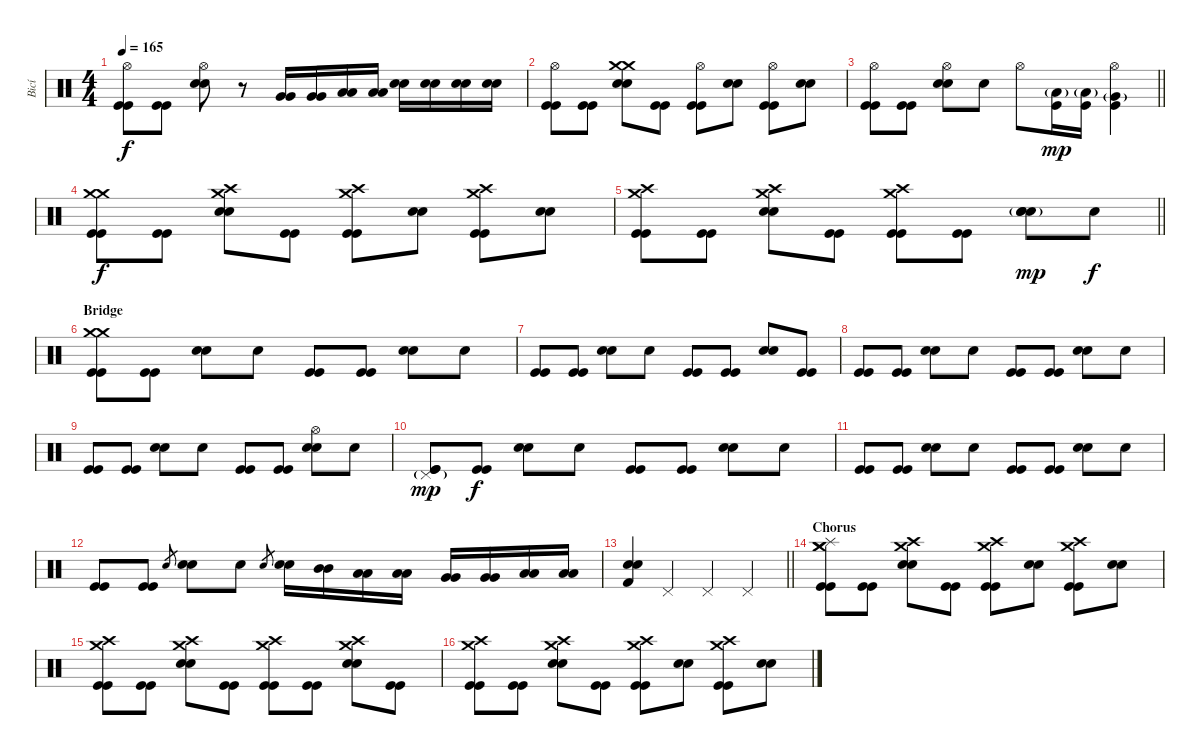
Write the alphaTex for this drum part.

\track ("Bicí" "Bicí") {instrument percussion}
\staff {score}
\articulation defaults
\ts (4 4)
\tempo 165
\clef neutral
\ks c
("Hi-Hat (open)" "Kick (hit)" "Kick (hit)").8{dy f} ("Kick (hit)" "Kick (hit)").8 ("Hi-Hat (open)" "Electric Snare (hit)" "Electric Snare (hit)").8 r.8 ("Very Low Tom (hit)" "Very Low Tom (hit)").16 ("Very Low Tom (hit)" "Very Low Tom (hit)").16 ("Low Floor Tom (hit)" "Low Floor Tom (hit)").16 ("Low Floor Tom (hit)" "Low Floor Tom (hit)").16 ("Electric Snare (hit)" "Electric Snare (hit)").16 ("Electric Snare (hit)" "Electric Snare (hit)").16 ("Electric Snare (hit)" "Electric Snare (hit)").16 ("Electric Snare (hit)" "Electric Snare (hit)").16 |
("Hi-Hat (open)" "Kick (hit)" "Kick (hit)").8 ("Kick (hit)" "Kick (hit)").8 ("Crash medium (hit)" "Crash medium (hit)" "Electric Snare (hit)" "Electric Snare (hit)").8 ("Kick (hit)" "Kick (hit)").8 ("Hi-Hat (open)" "Kick (hit)" "Kick (hit)").8 ("Electric Snare (hit)" "Electric Snare (hit)").8 ("Hi-Hat (open)" "Kick (hit)" "Kick (hit)").8 ("Electric Snare (hit)" "Electric Snare (hit)").8 |
\barLineRight lightlight
("Hi-Hat (open)" "Kick (hit)" "Kick (hit)").8 ("Kick (hit)" "Kick (hit)").8 ("Hi-Hat (open)" "Electric Snare (hit)" "Electric Snare (hit)").8 "Snare (hit)".8 "Hi-Hat (open)".8 ("Low Tom (hit)"{g} "Kick (hit)").16{dy mp} ("Low Tom (hit)"{g} "Kick (hit)").16 ("Hi-Hat (open)" "Very Low Tom (hit)"{g} "Kick (hit)").4 |
("Crash medium (hit)" "Crash medium (hit)" "Kick (hit)" "Kick (hit)").8{dy f} ("Kick (hit)" "Kick (hit)").8 ("Crash high (hit)" "Crash medium (hit)" "Electric Snare (hit)" "Electric Snare (hit)").8 ("Kick (hit)" "Kick (hit)").8 ("Crash high (hit)" "Crash medium (hit)" "Kick (hit)" "Kick (hit)").8 ("Electric Snare (hit)" "Electric Snare (hit)").8 ("Crash high (hit)" "Crash medium (hit)" "Kick (hit)" "Kick (hit)").8 ("Electric Snare (hit)" "Electric Snare (hit)").8 |
\barLineRight lightlight
("Crash high (hit)" "Crash medium (hit)" "Kick (hit)" "Kick (hit)").8 ("Kick (hit)" "Kick (hit)").8 ("Crash high (hit)" "Crash medium (hit)" "Electric Snare (hit)" "Electric Snare (hit)").8 ("Kick (hit)" "Kick (hit)").8 ("Crash high (hit)" "Crash medium (hit)" "Kick (hit)" "Kick (hit)").8 ("Kick (hit)" "Kick (hit)").8 ("Snare (hit) 2"{g} "Electric Snare (hit)" "Electric Snare (hit)").8{dy mp} "Snare (hit)".8{dy f} |
\section ("" "Bridge")
("Crash medium (hit)" "Crash medium (hit)" "Kick (hit)" "Kick (hit)").8 ("Kick (hit)" "Kick (hit)").8 ("Electric Snare (hit)" "Electric Snare (hit)").8 "Snare (hit)".8 ("Kick (hit)" "Kick (hit)").8 ("Kick (hit)" "Kick (hit)").8 ("Electric Snare (hit)" "Electric Snare (hit)").8 "Snare (hit)".8 |
("Kick (hit)" "Kick (hit)").8 ("Kick (hit)" "Kick (hit)").8 ("Electric Snare (hit)" "Electric Snare (hit)").8 "Snare (hit)".8 ("Kick (hit)" "Kick (hit)").8 ("Kick (hit)" "Kick (hit)").8 ("Electric Snare (hit)" "Electric Snare (hit)").8 ("Kick (hit)" "Kick (hit)").8 |
("Kick (hit)" "Kick (hit)").8 ("Kick (hit)" "Kick (hit)").8 ("Electric Snare (hit)" "Electric Snare (hit)").8 "Snare (hit)".8 ("Kick (hit)" "Kick (hit)").8 ("Kick (hit)" "Kick (hit)").8 ("Electric Snare (hit)" "Electric Snare (hit)").8 "Snare (hit)".8 |
("Kick (hit)" "Kick (hit)").8 ("Kick (hit)" "Kick (hit)").8 ("Electric Snare (hit)" "Electric Snare (hit)").8 "Snare (hit)".8 ("Kick (hit)" "Kick (hit)").8 ("Kick (hit)" "Kick (hit)").8 ("Hi-Hat (open)" "Electric Snare (hit)" "Electric Snare (hit)").8 "Snare (hit)".8 |
("Pedal Hi-Hat (hit)"{g} "Kick (hit)" "Kick (hit)").8{dy mp} ("Kick (hit)" "Kick (hit)").8{dy f} ("Electric Snare (hit)" "Electric Snare (hit)").8 "Snare (hit)".8 ("Kick (hit)" "Kick (hit)").8 ("Kick (hit)" "Kick (hit)").8 ("Electric Snare (hit)" "Electric Snare (hit)").8 "Snare (hit)".8 |
("Kick (hit)" "Kick (hit)").8 ("Kick (hit)" "Kick (hit)").8 ("Electric Snare (hit)" "Electric Snare (hit)").8 "Snare (hit)".8 ("Kick (hit)" "Kick (hit)").8 ("Kick (hit)" "Kick (hit)").8 ("Electric Snare (hit)" "Electric Snare (hit)").8 "Snare (hit)".8 |
("Kick (hit)" "Kick (hit)").8 ("Kick (hit)" "Kick (hit)").8 "Electric Snare (hit)".8{gr} ("Electric Snare (hit)" "Electric Snare (hit)").8 "Snare (hit)".8 "Electric Snare (hit)".8{gr} ("Electric Snare (hit)" "Electric Snare (hit)").16 ("Mid Tom (hit)" "Mid Tom (hit)").16 ("Low Tom (hit)" "Low Tom (hit)").16 ("Low Tom (hit)" "Low Tom (hit)").16 ("Very Low Tom (hit)" "Very Low Tom (hit)").16 ("Very Low Tom (hit)" "Very Low Tom (hit)").16 ("Low Floor Tom (hit)" "Low Floor Tom (hit)").16 ("Low Floor Tom (hit)" "Low Floor Tom (hit)").16 |
\barLineRight lightlight
("Electric Snare (hit)" "Electric Snare (hit)" "Kick (hit) 2").4 "Pedal Hi-Hat (hit)".4 "Pedal Hi-Hat (hit)".4 "Pedal Hi-Hat (hit)".4 |
\section ("" "Chorus")
("Crash medium (hit)" "Crash medium (hit)" "Splash (hit)" "Kick (hit)" "Kick (hit)").8 ("Kick (hit)" "Kick (hit)").8 ("Crash medium (hit)" "Crash high (hit)" "Electric Snare (hit)" "Electric Snare (hit)").8 ("Kick (hit)" "Kick (hit)").8 ("Crash medium (hit)" "Crash high (hit)" "Kick (hit)" "Kick (hit)").8 ("Electric Snare (hit)" "Electric Snare (hit)").8 ("Crash medium (hit)" "Crash high (hit)" "Kick (hit)" "Kick (hit)").8 ("Electric Snare (hit)" "Electric Snare (hit)").8 |
("Crash medium (hit)" "Crash high (hit)" "Kick (hit)" "Kick (hit)").8 ("Kick (hit)" "Kick (hit)").8 ("Crash medium (hit)" "Crash high (hit)" "Electric Snare (hit)" "Electric Snare (hit)").8 ("Kick (hit)" "Kick (hit)").8 ("Crash medium (hit)" "Crash high (hit)" "Kick (hit)" "Kick (hit)").8 ("Kick (hit)" "Kick (hit)").8 ("Crash medium (hit)" "Crash high (hit)" "Electric Snare (hit)" "Electric Snare (hit)").8 ("Kick (hit)" "Kick (hit)").8 |
("Crash medium (hit)" "Crash high (hit)" "Kick (hit)" "Kick (hit)").8 ("Kick (hit)" "Kick (hit)").8 ("Crash medium (hit)" "Crash high (hit)" "Electric Snare (hit)" "Electric Snare (hit)").8 ("Kick (hit)" "Kick (hit)").8 ("Crash medium (hit)" "Crash high (hit)" "Kick (hit)" "Kick (hit)").8 ("Electric Snare (hit)" "Electric Snare (hit)").8 ("Crash medium (hit)" "Crash high (hit)" "Kick (hit)" "Kick (hit)").8 ("Electric Snare (hit)" "Electric Snare (hit)").8
